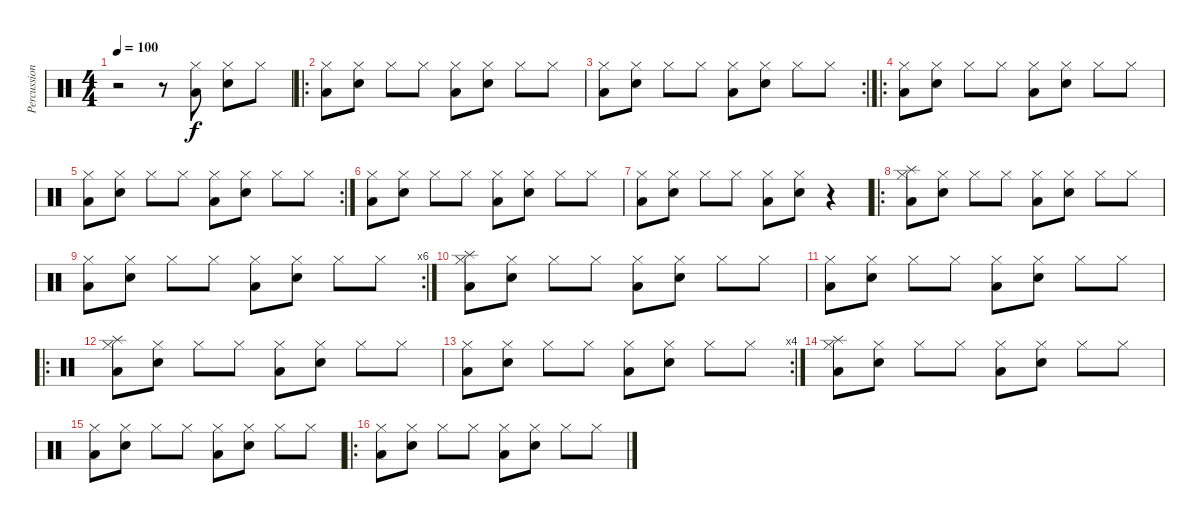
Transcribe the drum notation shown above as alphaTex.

\track ("Percussions" "Percussion") {instrument percussion}
\staff {score}
\articulation defaults
\ts (4 4)
\tempo 100
\clef neutral
\ks c
r.2{dy f} r.8 ("Hi-Hat (closed)" "Low Tom (hit)").8 ("Hi-Hat (closed)" "Snare (hit) 2").8 "Hi-Hat (closed)".8 |
\ro
("Hi-Hat (closed)" "Low Tom (hit)").8 ("Hi-Hat (closed)" "Snare (hit) 2").8 "Hi-Hat (closed)".8 "Hi-Hat (closed)".8 ("Hi-Hat (closed)" "Low Tom (hit)").8 ("Hi-Hat (closed)" "Snare (hit) 2").8 "Hi-Hat (closed)".8 "Hi-Hat (closed)".8 |
\rc 2
("Hi-Hat (closed)" "Low Tom (hit)").8 ("Hi-Hat (closed)" "Snare (hit) 2").8 "Hi-Hat (closed)".8 "Hi-Hat (closed)".8 ("Hi-Hat (closed)" "Low Tom (hit)").8 ("Hi-Hat (closed)" "Snare (hit) 2").8 "Hi-Hat (closed)".8 "Hi-Hat (closed)".8 |
\ro
("Hi-Hat (closed)" "Low Tom (hit)").8 ("Hi-Hat (closed)" "Snare (hit) 2").8 "Hi-Hat (closed)".8 "Hi-Hat (closed)".8 ("Hi-Hat (closed)" "Low Tom (hit)").8 ("Hi-Hat (closed)" "Snare (hit) 2").8 "Hi-Hat (closed)".8 "Hi-Hat (closed)".8 |
\rc 2
("Hi-Hat (closed)" "Low Tom (hit)").8 ("Hi-Hat (closed)" "Snare (hit) 2").8 "Hi-Hat (closed)".8 "Hi-Hat (closed)".8 ("Hi-Hat (closed)" "Low Tom (hit)").8 ("Hi-Hat (closed)" "Snare (hit) 2").8 "Hi-Hat (closed)".8 "Hi-Hat (closed)".8 |
("Hi-Hat (closed)" "Low Tom (hit)").8 ("Hi-Hat (closed)" "Snare (hit) 2").8 "Hi-Hat (closed)".8 "Hi-Hat (closed)".8 ("Hi-Hat (closed)" "Low Tom (hit)").8 ("Hi-Hat (closed)" "Snare (hit) 2").8 "Hi-Hat (closed)".8 "Hi-Hat (closed)".8 |
("Hi-Hat (closed)" "Low Tom (hit)").8 ("Hi-Hat (closed)" "Snare (hit) 2").8 "Hi-Hat (closed)".8 "Hi-Hat (closed)".8 ("Hi-Hat (closed)" "Low Tom (hit)").8 ("Hi-Hat (closed)" "Snare (hit) 2").8 r.4 |
\ro
("Hi-Hat (closed)" "Low Tom (hit)" "Splash (hit)").8 ("Hi-Hat (closed)" "Snare (hit) 2").8 "Hi-Hat (closed)".8 "Hi-Hat (closed)".8 ("Hi-Hat (closed)" "Low Tom (hit)").8 ("Hi-Hat (closed)" "Snare (hit) 2").8 "Hi-Hat (closed)".8 "Hi-Hat (closed)".8 |
\rc 6
("Hi-Hat (closed)" "Low Tom (hit)").8 ("Hi-Hat (closed)" "Snare (hit) 2").8 "Hi-Hat (closed)".8 "Hi-Hat (closed)".8 ("Hi-Hat (closed)" "Low Tom (hit)").8 ("Hi-Hat (closed)" "Snare (hit) 2").8 "Hi-Hat (closed)".8 "Hi-Hat (closed)".8 |
("Hi-Hat (closed)" "Low Tom (hit)" "Splash (hit)").8 ("Hi-Hat (closed)" "Snare (hit) 2").8 "Hi-Hat (closed)".8 "Hi-Hat (closed)".8 ("Hi-Hat (closed)" "Low Tom (hit)").8 ("Hi-Hat (closed)" "Snare (hit) 2").8 "Hi-Hat (closed)".8 "Hi-Hat (closed)".8 |
("Hi-Hat (closed)" "Low Tom (hit)").8 ("Hi-Hat (closed)" "Snare (hit) 2").8 "Hi-Hat (closed)".8 "Hi-Hat (closed)".8 ("Hi-Hat (closed)" "Low Tom (hit)").8 ("Hi-Hat (closed)" "Snare (hit) 2").8 "Hi-Hat (closed)".8 "Hi-Hat (closed)".8 |
\ro
("Hi-Hat (closed)" "Low Tom (hit)" "Splash (hit)").8 ("Hi-Hat (closed)" "Snare (hit) 2").8 "Hi-Hat (closed)".8 "Hi-Hat (closed)".8 ("Hi-Hat (closed)" "Low Tom (hit)").8 ("Hi-Hat (closed)" "Snare (hit) 2").8 "Hi-Hat (closed)".8 "Hi-Hat (closed)".8 |
\rc 4
("Hi-Hat (closed)" "Low Tom (hit)").8 ("Hi-Hat (closed)" "Snare (hit) 2").8 "Hi-Hat (closed)".8 "Hi-Hat (closed)".8 ("Hi-Hat (closed)" "Low Tom (hit)").8 ("Hi-Hat (closed)" "Snare (hit) 2").8 "Hi-Hat (closed)".8 "Hi-Hat (closed)".8 |
("Hi-Hat (closed)" "Low Tom (hit)" "Splash (hit)").8 ("Hi-Hat (closed)" "Snare (hit) 2").8 "Hi-Hat (closed)".8 "Hi-Hat (closed)".8 ("Hi-Hat (closed)" "Low Tom (hit)").8 ("Hi-Hat (closed)" "Snare (hit) 2").8 "Hi-Hat (closed)".8 "Hi-Hat (closed)".8 |
("Hi-Hat (closed)" "Low Tom (hit)").8 ("Hi-Hat (closed)" "Snare (hit) 2").8 "Hi-Hat (closed)".8 "Hi-Hat (closed)".8 ("Hi-Hat (closed)" "Low Tom (hit)").8 ("Hi-Hat (closed)" "Snare (hit) 2").8 "Hi-Hat (closed)".8 "Hi-Hat (closed)".8 |
\ro
("Hi-Hat (closed)" "Low Tom (hit)").8 ("Hi-Hat (closed)" "Snare (hit) 2").8 "Hi-Hat (closed)".8 "Hi-Hat (closed)".8 ("Hi-Hat (closed)" "Low Tom (hit)").8 ("Hi-Hat (closed)" "Snare (hit) 2").8 "Hi-Hat (closed)".8 "Hi-Hat (closed)".8
